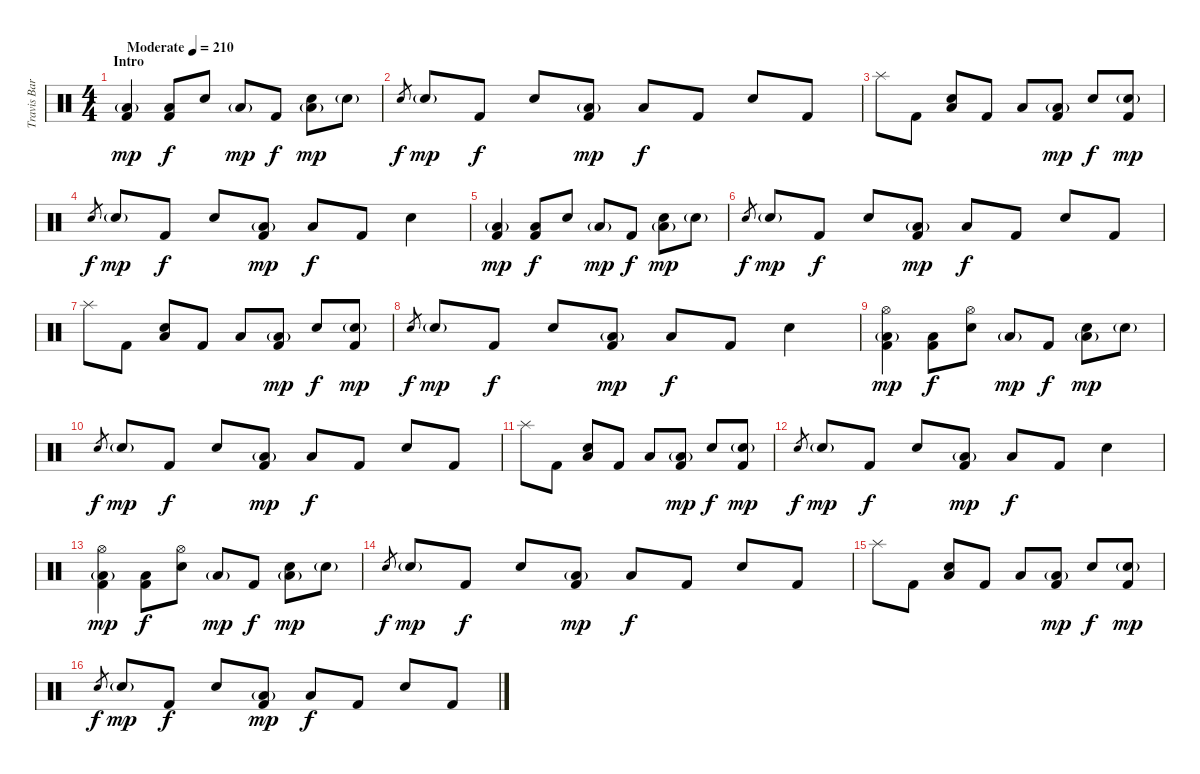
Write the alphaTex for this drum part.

\track ("Travis Barker - Drums" "Travis Bar") {instrument percussion}
\staff {score}
\articulation defaults
\ts (4 4)
\section ("" "Intro")
\tempo (210 "Moderate")
\clef neutral
\ks c
("Low Floor Tom (hit)"{g} "Kick (hit) 2").4{dy mp volume 9 balance 5} ("Low Floor Tom (hit)" "Kick (hit) 2").8{dy f} "Electric Snare (hit)".8 "Low Floor Tom (hit)"{g}.8{dy mp} "Kick (hit) 2".8{dy f} ("Electric Snare (hit)" "Low Floor Tom (hit)"{g}).8{dy mp} "Electric Snare (hit)"{g}.8 |
"Electric Snare (hit)"{x}.8{gr dy f} "Electric Snare (hit)"{g}.8{dy mp} "Kick (hit) 2".8{dy f} "Electric Snare (hit)".8 ("Low Floor Tom (hit)"{g} "Kick (hit) 2").8{dy mp} "Low Floor Tom (hit)".8{dy f} "Kick (hit) 2".8 "Electric Snare (hit)".8 "Kick (hit) 2".8 |
"Splash (hit)".8 "Kick (hit) 2".8 ("Low Floor Tom (hit)" "Electric Snare (hit)").8 "Kick (hit) 2".8 "Low Floor Tom (hit)".8 ("Low Floor Tom (hit)"{g} "Kick (hit) 2").8{dy mp} "Electric Snare (hit)".8{dy f} ("Electric Snare (hit)"{g} "Kick (hit) 2").8{dy mp} |
"Electric Snare (hit)"{x}.8{gr dy f} "Electric Snare (hit)"{g}.8{dy mp} "Kick (hit) 2".8{dy f} "Electric Snare (hit)".8 ("Low Floor Tom (hit)"{g} "Kick (hit) 2").8{dy mp} "Low Floor Tom (hit)".8{dy f} "Kick (hit) 2".8 "Electric Snare (hit)".4 |
("Low Floor Tom (hit)"{g} "Kick (hit) 2").4{dy mp volume 11 balance 13} ("Low Floor Tom (hit)" "Kick (hit) 2").8{dy f} "Electric Snare (hit)".8 "Low Floor Tom (hit)"{g}.8{dy mp} "Kick (hit) 2".8{dy f} ("Electric Snare (hit)" "Low Floor Tom (hit)"{g}).8{dy mp} "Electric Snare (hit)"{g}.8 |
"Electric Snare (hit)"{x}.8{gr dy f} "Electric Snare (hit)"{g}.8{dy mp} "Kick (hit) 2".8{dy f} "Electric Snare (hit)".8 ("Low Floor Tom (hit)"{g} "Kick (hit) 2").8{dy mp} "Low Floor Tom (hit)".8{dy f} "Kick (hit) 2".8 "Electric Snare (hit)".8 "Kick (hit) 2".8 |
"Splash (hit)".8 "Kick (hit) 2".8 ("Low Floor Tom (hit)" "Electric Snare (hit)").8 "Kick (hit) 2".8 "Low Floor Tom (hit)".8 ("Low Floor Tom (hit)"{g} "Kick (hit) 2").8{dy mp} "Electric Snare (hit)".8{dy f} ("Electric Snare (hit)"{g} "Kick (hit) 2").8{dy mp} |
"Electric Snare (hit)"{x}.8{gr dy f} "Electric Snare (hit)"{g}.8{dy mp} "Kick (hit) 2".8{dy f} "Electric Snare (hit)".8 ("Low Floor Tom (hit)"{g} "Kick (hit) 2").8{dy mp} "Low Floor Tom (hit)".8{dy f} "Kick (hit) 2".8 "Electric Snare (hit)".4 |
("Hi-Hat (open)" "Low Floor Tom (hit)"{g} "Kick (hit) 2").4{dy mp balance 4} ("Low Floor Tom (hit)" "Kick (hit) 2").8{dy f} ("Hi-Hat (open)" "Electric Snare (hit)").8 "Low Floor Tom (hit)"{g}.8{dy mp} "Kick (hit) 2".8{dy f} ("Electric Snare (hit)" "Low Floor Tom (hit)"{g}).8{dy mp} "Electric Snare (hit)"{g}.8 |
"Electric Snare (hit)"{x}.8{gr dy f} "Electric Snare (hit)"{g}.8{dy mp} "Kick (hit) 2".8{dy f} "Electric Snare (hit)".8 ("Low Floor Tom (hit)"{g} "Kick (hit) 2").8{dy mp} "Low Floor Tom (hit)".8{dy f} "Kick (hit) 2".8 "Electric Snare (hit)".8 "Kick (hit) 2".8 |
"Splash (hit)".8 "Kick (hit) 2".8 ("Low Floor Tom (hit)" "Electric Snare (hit)").8 "Kick (hit) 2".8 "Low Floor Tom (hit)".8 ("Low Floor Tom (hit)"{g} "Kick (hit) 2").8{dy mp} "Electric Snare (hit)".8{dy f} ("Electric Snare (hit)"{g} "Kick (hit) 2").8{dy mp} |
"Electric Snare (hit)"{x}.8{gr dy f} "Electric Snare (hit)"{g}.8{dy mp} "Kick (hit) 2".8{dy f} "Electric Snare (hit)".8 ("Low Floor Tom (hit)"{g} "Kick (hit) 2").8{dy mp} "Low Floor Tom (hit)".8{dy f} "Kick (hit) 2".8 "Electric Snare (hit)".4 |
("Hi-Hat (open)" "Low Floor Tom (hit)"{g} "Kick (hit) 2").4{dy mp balance 11} ("Low Floor Tom (hit)" "Kick (hit) 2").8{dy f} ("Hi-Hat (open)" "Electric Snare (hit)").8 "Low Floor Tom (hit)"{g}.8{dy mp} "Kick (hit) 2".8{dy f} ("Electric Snare (hit)" "Low Floor Tom (hit)"{g}).8{dy mp} "Electric Snare (hit)"{g}.8 |
"Electric Snare (hit)"{x}.8{gr dy f} "Electric Snare (hit)"{g}.8{dy mp} "Kick (hit) 2".8{dy f} "Electric Snare (hit)".8 ("Low Floor Tom (hit)"{g} "Kick (hit) 2").8{dy mp} "Low Floor Tom (hit)".8{dy f} "Kick (hit) 2".8 "Electric Snare (hit)".8 "Kick (hit) 2".8 |
"Splash (hit)".8 "Kick (hit) 2".8{volume 10} ("Low Floor Tom (hit)" "Electric Snare (hit)").8 "Kick (hit) 2".8 "Low Floor Tom (hit)".8 ("Low Floor Tom (hit)"{g} "Kick (hit) 2").8{dy mp} "Electric Snare (hit)".8{dy f} ("Electric Snare (hit)"{g} "Kick (hit) 2").8{dy mp} |
"Electric Snare (hit)"{x}.8{gr dy f} "Electric Snare (hit)"{g}.8{dy mp} "Kick (hit) 2".8{dy f} "Electric Snare (hit)".8 ("Low Floor Tom (hit)"{g} "Kick (hit) 2").8{dy mp} "Low Floor Tom (hit)".8{dy f} "Kick (hit) 2".8 "Electric Snare (hit)".8 "Kick (hit) 2".8
